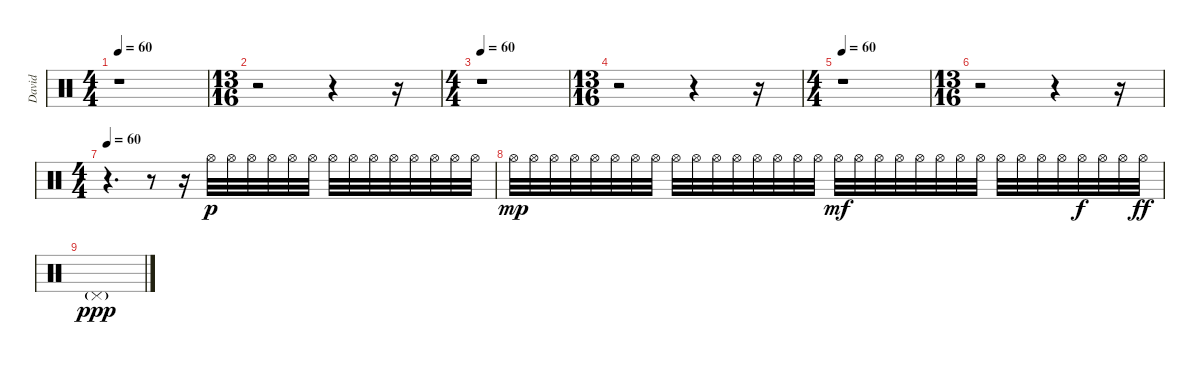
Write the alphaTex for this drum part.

\track ("David" "David") {instrument percussion}
\staff {score}
\articulation defaults
\ts (4 4)
\tempo 60
\clef neutral
\ks c
r.1{dy f} |
\ts (13 16)
r.2 r.4 r.16 |
\ts (4 4)
\tempo 60
r.1 |
\ts (13 16)
r.2 r.4 r.16 |
\ts (4 4)
\tempo 60
r.1 |
\ts (13 16)
r.2 r.4 r.16 |
\ts (4 4)
\tempo 60
r.4{d} r.8 r.16 "Hi-Hat (open)".32{dy p} "Hi-Hat (open)".32 "Hi-Hat (open)".32 "Hi-Hat (open)".32 "Hi-Hat (open)".32 "Hi-Hat (open)".32 "Hi-Hat (open)".32 "Hi-Hat (open)".32 "Hi-Hat (open)".32 "Hi-Hat (open)".32 "Hi-Hat (open)".32 "Hi-Hat (open)".32 "Hi-Hat (open)".32 "Hi-Hat (open)".32 |
"Hi-Hat (open)".32{dy mp} "Hi-Hat (open)".32 "Hi-Hat (open)".32 "Hi-Hat (open)".32 "Hi-Hat (open)".32 "Hi-Hat (open)".32 "Hi-Hat (open)".32 "Hi-Hat (open)".32 "Hi-Hat (open)".32 "Hi-Hat (open)".32 "Hi-Hat (open)".32 "Hi-Hat (open)".32 "Hi-Hat (open)".32 "Hi-Hat (open)".32 "Hi-Hat (open)".32 "Hi-Hat (open)".32 "Hi-Hat (open)".32{dy mf} "Hi-Hat (open)".32 "Hi-Hat (open)".32 "Hi-Hat (open)".32 "Hi-Hat (open)".32 "Hi-Hat (open)".32 "Hi-Hat (open)".32 "Hi-Hat (open)".32 "Hi-Hat (open)".32 "Hi-Hat (open)".32 "Hi-Hat (open)".32 "Hi-Hat (open)".32 "Hi-Hat (open)".32{dy f} "Hi-Hat (open)".32 "Hi-Hat (open)".32 "Hi-Hat (open)".32{dy ff} |
"Pedal Hi-Hat (hit)"{g}.1{dy ppp}
